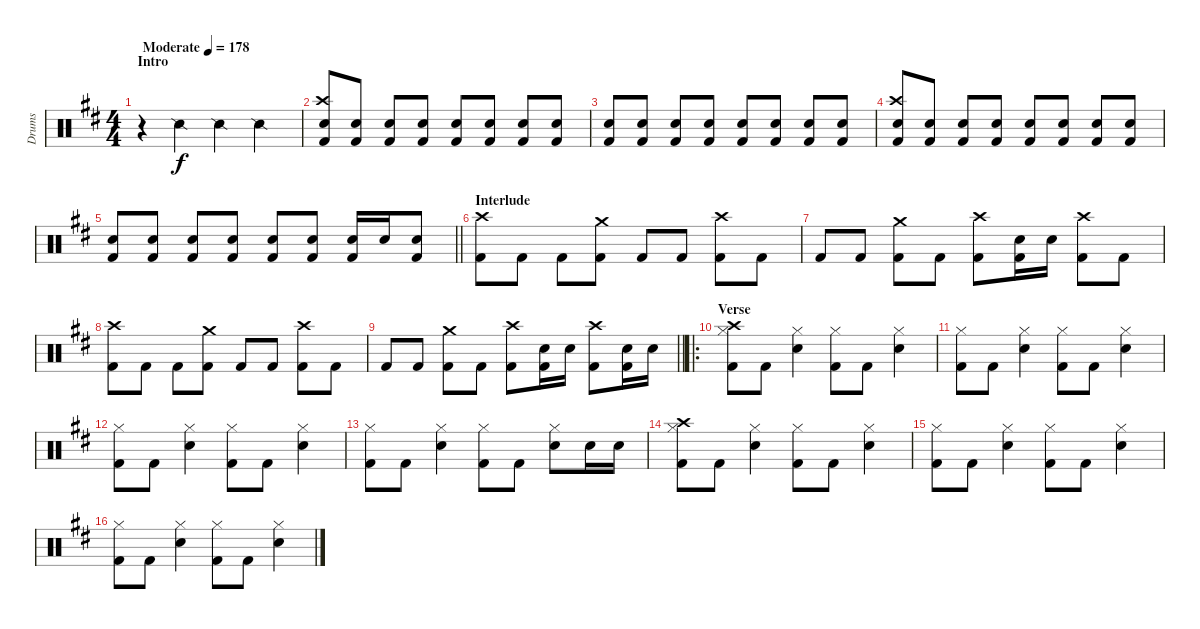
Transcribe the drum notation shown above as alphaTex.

\track ("Drums" "Drums") {instrument percussion}
\staff {score}
\articulation defaults
\ts (4 4)
\section ("" "Intro")
\tempo (178 "Moderate")
\clef neutral
\ks d
r.4{dy f} "Snare (side stick) 2".4 "Snare (side stick) 2".4 "Snare (side stick) 2".4 |
("Kick (hit) 2" "Crash high (hit)" "Snare (hit) 2").8 ("Kick (hit) 2" "Snare (hit) 2").8 ("Kick (hit) 2" "Snare (hit) 2").8 ("Kick (hit) 2" "Snare (hit) 2").8 ("Kick (hit) 2" "Snare (hit) 2").8 ("Kick (hit) 2" "Snare (hit) 2").8 ("Kick (hit) 2" "Snare (hit) 2").8 ("Kick (hit) 2" "Snare (hit) 2").8 |
("Kick (hit) 2" "Snare (hit) 2").8 ("Kick (hit) 2" "Snare (hit) 2").8 ("Kick (hit) 2" "Snare (hit) 2").8 ("Kick (hit) 2" "Snare (hit) 2").8 ("Kick (hit) 2" "Snare (hit) 2").8 ("Kick (hit) 2" "Snare (hit) 2").8 ("Kick (hit) 2" "Snare (hit) 2").8 ("Kick (hit) 2" "Snare (hit) 2").8 |
("Kick (hit) 2" "Crash high (hit)" "Snare (hit) 2").8 ("Kick (hit) 2" "Snare (hit) 2").8 ("Kick (hit) 2" "Snare (hit) 2").8 ("Kick (hit) 2" "Snare (hit) 2").8 ("Kick (hit) 2" "Snare (hit) 2").8 ("Kick (hit) 2" "Snare (hit) 2").8 ("Kick (hit) 2" "Snare (hit) 2").8 ("Kick (hit) 2" "Snare (hit) 2").8 |
\barLineRight lightlight
("Kick (hit) 2" "Snare (hit) 2").8 ("Kick (hit) 2" "Snare (hit) 2").8 ("Kick (hit) 2" "Snare (hit) 2").8 ("Kick (hit) 2" "Snare (hit) 2").8 ("Kick (hit) 2" "Snare (hit) 2").8 ("Kick (hit) 2" "Snare (hit) 2").8 ("Kick (hit) 2" "Snare (hit) 2").16 "Snare (hit) 2".16 ("Kick (hit) 2" "Snare (hit) 2").8 |
\section ("" "Interlude")
("Kick (hit) 2" "Crash high (hit)").8 "Kick (hit) 2".8 "Kick (hit) 2".8 ("Kick (hit) 2" "Crash medium (hit)").8 "Kick (hit) 2".8 "Kick (hit) 2".8 ("Kick (hit) 2" "Crash high (hit)").8 "Kick (hit) 2".8 |
"Kick (hit) 2".8 "Kick (hit) 2".8 ("Kick (hit) 2" "Crash medium (hit)").8 "Kick (hit) 2".8 ("Kick (hit) 2" "Crash high (hit)").8 ("Kick (hit) 2" "Snare (hit) 2").16 "Snare (hit) 2".16 ("Kick (hit) 2" "Crash high (hit)").8 "Kick (hit) 2".8 |
("Kick (hit) 2" "Crash high (hit)").8 "Kick (hit) 2".8 "Kick (hit) 2".8 ("Kick (hit) 2" "Crash medium (hit)").8 "Kick (hit) 2".8 "Kick (hit) 2".8 ("Kick (hit) 2" "Crash high (hit)").8 "Kick (hit) 2".8 |
\barLineRight lightlight "Kick (hit) 2".8 "Kick (hit) 2".8
("Kick (hit) 2" "Crash medium (hit)").8 "Kick (hit) 2".8 ("Kick (hit) 2" "Crash high (hit)").8 ("Kick (hit) 2" "Snare (hit) 2").16 "Snare (hit) 2".16 ("Kick (hit) 2" "Crash high (hit)").8 ("Kick (hit) 2" "Snare (hit) 2").16 "Snare (hit) 2".16 |
\ro
\section ("" "Verse")
("Kick (hit) 2" "Crash high (hit)" "Hi-Hat (closed)").8 "Kick (hit) 2".8 ("Snare (hit) 2" "Hi-Hat (closed)").4 ("Kick (hit) 2" "Hi-Hat (closed)").8 "Kick (hit) 2".8 ("Snare (hit) 2" "Hi-Hat (closed)").4 |
("Kick (hit) 2" "Hi-Hat (closed)").8 "Kick (hit) 2".8 ("Snare (hit) 2" "Hi-Hat (closed)").4 ("Kick (hit) 2" "Hi-Hat (closed)").8 "Kick (hit) 2".8 ("Snare (hit) 2" "Hi-Hat (closed)").4 |
("Kick (hit) 2" "Hi-Hat (closed)").8 "Kick (hit) 2".8 ("Snare (hit) 2" "Hi-Hat (closed)").4 ("Kick (hit) 2" "Hi-Hat (closed)").8 "Kick (hit) 2".8 ("Snare (hit) 2" "Hi-Hat (closed)").4 |
("Kick (hit) 2" "Hi-Hat (closed)").8 "Kick (hit) 2".8 ("Snare (hit) 2" "Hi-Hat (closed)").4 ("Kick (hit) 2" "Hi-Hat (closed)").8 "Kick (hit) 2".8 ("Snare (hit) 2" "Hi-Hat (closed)").8 "Snare (hit) 2".16 "Snare (hit) 2".16 |
("Kick (hit) 2" "Crash high (hit)" "Hi-Hat (closed)").8 "Kick (hit) 2".8 ("Snare (hit) 2" "Hi-Hat (closed)").4 ("Kick (hit) 2" "Hi-Hat (closed)").8 "Kick (hit) 2".8 ("Snare (hit) 2" "Hi-Hat (closed)").4 |
("Kick (hit) 2" "Hi-Hat (closed)").8 "Kick (hit) 2".8 ("Snare (hit) 2" "Hi-Hat (closed)").4 ("Kick (hit) 2" "Hi-Hat (closed)").8 "Kick (hit) 2".8 ("Snare (hit) 2" "Hi-Hat (closed)").4 |
("Kick (hit) 2" "Hi-Hat (closed)").8 "Kick (hit) 2".8 ("Snare (hit) 2" "Hi-Hat (closed)").4 ("Kick (hit) 2" "Hi-Hat (closed)").8 "Kick (hit) 2".8 ("Snare (hit) 2" "Hi-Hat (closed)").4
